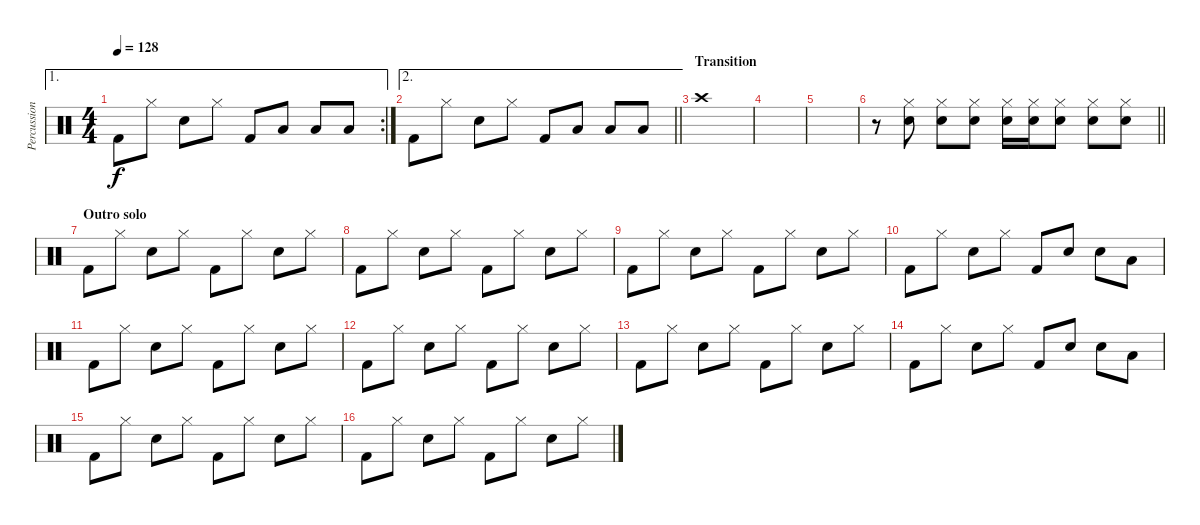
\track ("Percussions" "Percussion") {instrument percussion}
\staff {score}
\articulation defaults
\ae 1
\rc 2
\ts (4 4)
\tempo 128
\clef neutral
\ks c "Kick (hit) 2".8{dy f} "Hi-Hat (closed)".8 "Electric Snare (hit)".8 "Hi-Hat (closed)".8 "Kick (hit) 2".8 "Low Tom (hit)".8 "Low Tom (hit)".8 "Low Floor Tom (hit)".8
|
\ae 2
\barLineRight lightlight "Kick (hit) 2".8 "Hi-Hat (closed)".8 "Electric Snare (hit)".8 "Hi-Hat (closed)".8 "Kick (hit) 2".8 "Low Tom (hit)".8 "Low Tom (hit)".8 "Low Floor Tom (hit)".8
|
\section ("" "Transition")
"Crash high (hit)".1 |
|
|
\barLineRight lightlight
r.8 ("Hi-Hat (closed)" "Electric Snare (hit)").8 ("Hi-Hat (closed)" "Electric Snare (hit)").8 ("Hi-Hat (closed)" "Electric Snare (hit)").8 ("Hi-Hat (closed)" "Electric Snare (hit)").16 ("Hi-Hat (closed)" "Electric Snare (hit)").16 ("Hi-Hat (closed)" "Electric Snare (hit)").8 ("Hi-Hat (closed)" "Electric Snare (hit)").8 ("Hi-Hat (closed)" "Electric Snare (hit)").8 |
\section ("" "Outro solo")
"Kick (hit) 2".8 "Hi-Hat (closed)".8 "Electric Snare (hit)".8 "Hi-Hat (closed)".8 "Kick (hit) 2".8 "Hi-Hat (closed)".8 "Electric Snare (hit)".8 "Hi-Hat (closed)".8 |
"Kick (hit) 2".8 "Hi-Hat (closed)".8 "Electric Snare (hit)".8 "Hi-Hat (closed)".8 "Kick (hit) 2".8 "Hi-Hat (closed)".8 "Electric Snare (hit)".8 "Hi-Hat (closed)".8 |
"Kick (hit) 2".8 "Hi-Hat (closed)".8 "Electric Snare (hit)".8 "Hi-Hat (closed)".8 "Kick (hit) 2".8 "Hi-Hat (closed)".8 "Electric Snare (hit)".8 "Hi-Hat (closed)".8 |
"Kick (hit) 2".8 "Hi-Hat (closed)".8 "Electric Snare (hit)".8 "Hi-Hat (closed)".8 "Kick (hit) 2".8 "Electric Snare (hit)".8 "Electric Snare (hit)".8 "Low Tom (hit)".8 |
"Kick (hit) 2".8 "Hi-Hat (closed)".8 "Electric Snare (hit)".8 "Hi-Hat (closed)".8 "Kick (hit) 2".8 "Hi-Hat (closed)".8 "Electric Snare (hit)".8 "Hi-Hat (closed)".8 |
"Kick (hit) 2".8 "Hi-Hat (closed)".8 "Electric Snare (hit)".8 "Hi-Hat (closed)".8 "Kick (hit) 2".8 "Hi-Hat (closed)".8 "Electric Snare (hit)".8 "Hi-Hat (closed)".8 |
"Kick (hit) 2".8 "Hi-Hat (closed)".8 "Electric Snare (hit)".8 "Hi-Hat (closed)".8 "Kick (hit) 2".8 "Hi-Hat (closed)".8 "Electric Snare (hit)".8 "Hi-Hat (closed)".8 |
"Kick (hit) 2".8 "Hi-Hat (closed)".8 "Electric Snare (hit)".8 "Hi-Hat (closed)".8 "Kick (hit) 2".8 "Electric Snare (hit)".8 "Electric Snare (hit)".8 "Low Tom (hit)".8 |
"Kick (hit) 2".8 "Hi-Hat (closed)".8 "Electric Snare (hit)".8 "Hi-Hat (closed)".8 "Kick (hit) 2".8 "Hi-Hat (closed)".8 "Electric Snare (hit)".8 "Hi-Hat (closed)".8 |
"Kick (hit) 2".8 "Hi-Hat (closed)".8 "Electric Snare (hit)".8 "Hi-Hat (closed)".8 "Kick (hit) 2".8 "Hi-Hat (closed)".8 "Electric Snare (hit)".8 "Hi-Hat (closed)".8
